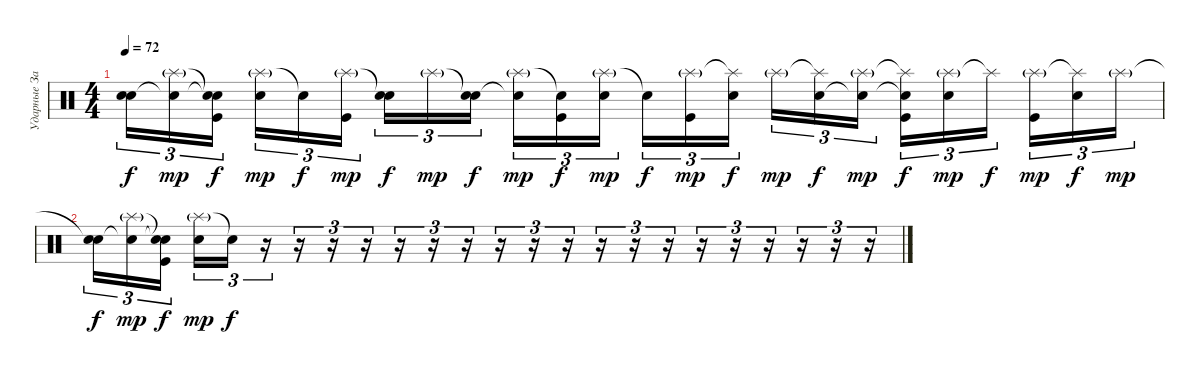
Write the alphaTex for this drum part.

\track ("Ударные Запарили(" "Ударные За") {instrument percussion}
\staff {score}
\articulation defaults
\ts (4 4)
\tempo 72
\clef neutral
\ks c
("Snare (hit)"{t} "Snare (hit) 2").16{tu (3 2) dy f} ("Splash (hit)"{g} "Snare (hit) 2"{t}).16{tu (3 2) dy mp} ("Snare (hit)"{t} "Snare (hit) 2"{t} "Kick (hit)").16{tu (3 2) dy f beam splitsecondary} ("Splash (hit)"{g} "Snare (hit) 2").16{tu (3 2) dy mp} "Snare (hit)"{t}.16{tu (3 2) dy f} ("Splash (hit)"{g} "Kick (hit)").16{tu (3 2) dy mp} ("Snare (hit)"{t} "Snare (hit) 2").16{tu (3 2) dy f} "Splash (hit)"{g}.16{tu (3 2) dy mp} ("Snare (hit)"{t} "Snare (hit) 2").16{tu (3 2) dy f beam splitsecondary} ("Splash (hit)"{g} "Snare (hit) 2"{t}).16{tu (3 2) dy mp} ("Snare (hit) 2"{t} "Kick (hit)").16{tu (3 2) dy f} ("Splash (hit)"{g} "Snare (hit) 2").16{tu (3 2) dy mp} "Snare (hit)"{t}.16{tu (3 2) dy f} ("Splash (hit)"{g} "Kick (hit)").16{tu (3 2) dy mp} ("Splash (hit)"{t} "Snare (hit) 2").16{tu (3 2) dy f beam splitsecondary} "Splash (hit)"{g}.16{tu (3 2) dy mp} ("Splash (hit)"{t} "Snare (hit) 2").16{tu (3 2) dy f} ("Splash (hit)"{g} "Snare (hit) 2"{t}).16{tu (3 2) dy mp} ("Splash (hit)"{t} "Snare (hit) 2"{t} "Kick (hit)").16{tu (3 2) dy f} ("Splash (hit)"{g} "Snare (hit) 2").16{tu (3 2) dy mp} "Splash (hit)"{t}.16{tu (3 2) dy f beam splitsecondary} ("Splash (hit)"{g} "Kick (hit)").16{tu (3 2) dy mp} ("Splash (hit)"{t} "Snare (hit) 2").16{tu (3 2) dy f} "Splash (hit)"{g}.16{tu (3 2) dy mp} |
("Snare (hit)"{t} "Snare (hit) 2").16{tu (3 2) dy f} ("Splash (hit)"{g} "Snare (hit) 2"{t}).16{tu (3 2) dy mp} ("Snare (hit)"{t} "Snare (hit) 2"{t} "Kick (hit)").16{tu (3 2) dy f beam splitsecondary} ("Splash (hit)"{g} "Snare (hit) 2").16{tu (3 2) dy mp} "Snare (hit)"{t}.16{tu (3 2) dy f} r.16{tu (3 2)} r.16{tu (3 2)} r.16{tu (3 2)} r.16{tu (3 2)} r.16{tu (3 2)} r.16{tu (3 2)} r.16{tu (3 2)} r.16{tu (3 2)} r.16{tu (3 2)} r.16{tu (3 2)} r.16{tu (3 2)} r.16{tu (3 2)} r.16{tu (3 2)} r.16{tu (3 2)} r.16{tu (3 2)} r.16{tu (3 2)} r.16{tu (3 2)} r.16{tu (3 2)} r.16{tu (3 2)}
